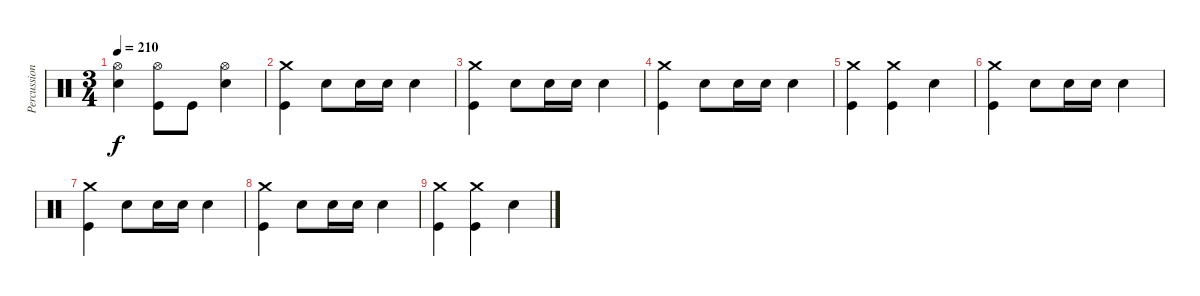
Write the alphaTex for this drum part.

\track ("Percussion" "Percussion") {instrument percussion}
\staff {score}
\articulation defaults
\ts (3 4)
\tempo 210
\clef neutral
\ks c
("Hi-Hat (open)" "Snare (hit) 2").4{dy f} ("Hi-Hat (open)" "Kick (hit)").8 "Kick (hit)".8 ("Hi-Hat (open)" "Snare (hit) 2").4 |
("Crash medium (hit)" "Kick (hit)").4 "Snare (hit) 2".8 "Snare (hit) 2".16 "Snare (hit) 2".16 "Snare (hit) 2".4 |
("Crash medium (hit)" "Kick (hit)").4 "Snare (hit) 2".8 "Snare (hit) 2".16 "Snare (hit) 2".16 "Snare (hit) 2".4 |
("Crash medium (hit)" "Kick (hit)").4 "Snare (hit) 2".8 "Snare (hit) 2".16 "Snare (hit) 2".16 "Snare (hit) 2".4 |
("Crash medium (hit)" "Kick (hit)").4 ("Crash medium (hit)" "Kick (hit)").4 "Snare (hit) 2".4 |
("Crash medium (hit)" "Kick (hit)").4 "Snare (hit) 2".8 "Snare (hit) 2".16 "Snare (hit) 2".16 "Snare (hit) 2".4 |
("Crash medium (hit)" "Kick (hit)").4 "Snare (hit) 2".8 "Snare (hit) 2".16 "Snare (hit) 2".16 "Snare (hit) 2".4 |
("Crash medium (hit)" "Kick (hit)").4 "Snare (hit) 2".8 "Snare (hit) 2".16 "Snare (hit) 2".16 "Snare (hit) 2".4 |
("Crash medium (hit)" "Kick (hit)").4 ("Crash medium (hit)" "Kick (hit)").4 "Snare (hit) 2".4
